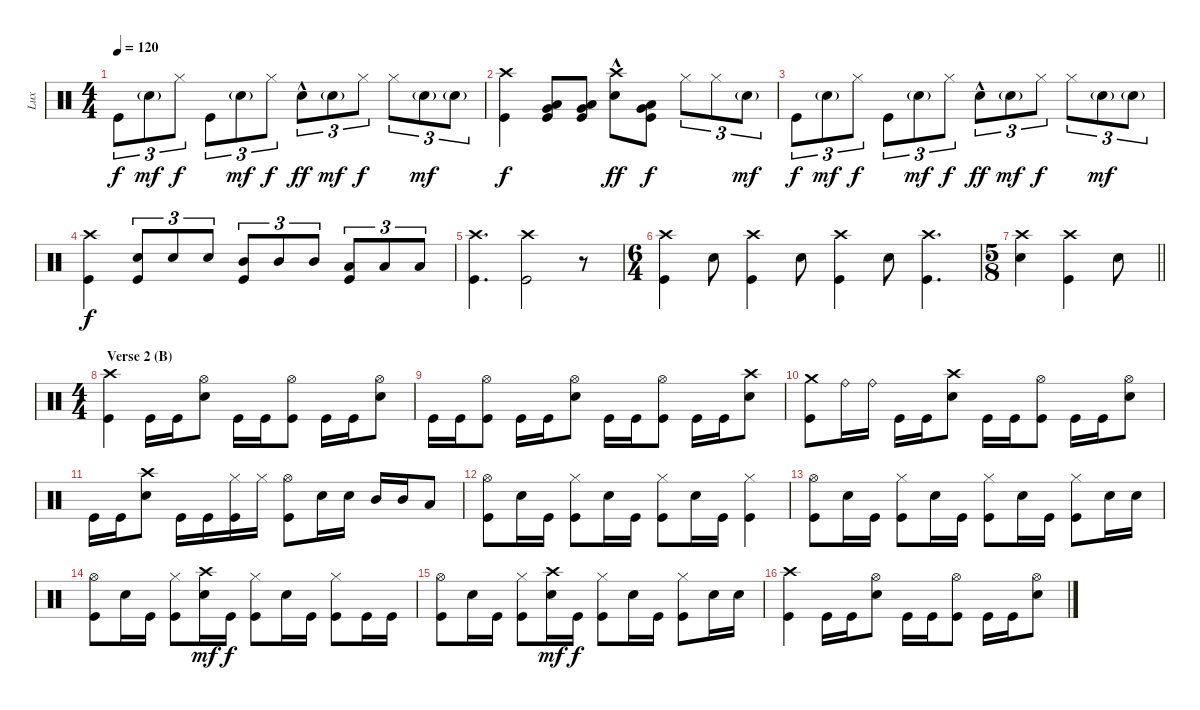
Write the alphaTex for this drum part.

\track ("Lux" "Lux") {instrument percussion bank 32}
\staff {score}
\articulation defaults
\ts (4 4)
\tempo 120
\clef neutral
\ks c "Kick (hit)".8{tu (3 2) dy f} "Snare (hit) 2"{g}.8{tu (3 2) dy mf} "Hi-Hat (closed)".8{tu (3 2) dy f} "Kick (hit)".8{tu (3 2)} "Snare (hit) 2"{g}.8{tu (3 2) dy mf} "Hi-Hat (closed)".8{tu (3 2) dy f} "Snare (hit) 2"{hac}.8{tu (3 2) dy ff} "Snare (hit) 2"{g}.8{tu (3 2) dy mf} "Hi-Hat (closed)".8{tu (3 2) dy f} "Hi-Hat (closed)".8{tu (3 2)} "Snare (hit) 2"{g}.8{tu (3 2) dy mf} "Snare (hit) 2"{g}.8{tu (3 2)}
|
("Crash high (hit)" "Kick (hit)").4{dy f} ("Low Tom (hit)" "Very Low Tom (hit)" "Kick (hit)").8 ("Low Tom (hit)" "Very Low Tom (hit)" "Kick (hit)").8 ("Crash high (hit)" "Snare (hit) 2"{hac}).8{dy ff} ("Low Tom (hit)" "Very Low Tom (hit)" "Kick (hit)").8{dy f} "Hi-Hat (closed)".8{tu (3 2)} "Hi-Hat (closed)".8{tu (3 2)} "Snare (hit) 2"{g}.8{tu (3 2) dy mf} |
"Kick (hit)".8{tu (3 2) dy f} "Snare (hit) 2"{g}.8{tu (3 2) dy mf} "Hi-Hat (closed)".8{tu (3 2) dy f} "Kick (hit)".8{tu (3 2)} "Snare (hit) 2"{g}.8{tu (3 2) dy mf} "Hi-Hat (closed)".8{tu (3 2) dy f} "Snare (hit) 2"{hac}.8{tu (3 2) dy ff} "Snare (hit) 2"{g}.8{tu (3 2) dy mf} "Hi-Hat (closed)".8{tu (3 2) dy f} "Hi-Hat (closed)".8{tu (3 2)} "Snare (hit) 2"{g}.8{tu (3 2) dy mf} "Snare (hit) 2"{g}.8{tu (3 2)} |
("Crash high (hit)" "Kick (hit)").4{dy f} ("Snare (hit) 2" "Kick (hit)").8{tu (3 2)} "Snare (hit) 2".8{tu (3 2)} "Snare (hit) 2".8{tu (3 2)} ("Mid Tom (hit)" "Kick (hit)").8{tu (3 2)} "Mid Tom (hit)".8{tu (3 2)} "Mid Tom (hit)".8{tu (3 2)} ("Low Tom (hit)" "Kick (hit)").8{tu (3 2)} "Low Tom (hit)".8{tu (3 2)} "Low Tom (hit)".8{tu (3 2)} |
("Crash high (hit)" "Kick (hit)").4{d} ("Crash high (hit)" "Kick (hit)").2 r.8 |
\ts (6 4)
("Crash high (hit)" "Kick (hit)").4 "Snare (hit) 2".8 ("Crash high (hit)" "Kick (hit)").4 "Snare (hit) 2".8 ("Crash high (hit)" "Kick (hit)").4 "Snare (hit) 2".8 ("Crash high (hit)" "Kick (hit)").4{d} |
\ts (5 8)
\barLineRight lightlight
("Crash high (hit)" "Snare (hit) 2").4 ("Crash high (hit)" "Kick (hit)").4 "Snare (hit) 2".8 |
\ts (4 4)
\section ("" " Verse 2 (B)")
("Crash high (hit)" "Kick (hit)").4 "Kick (hit)".16 "Kick (hit)".16 ("Hi-Hat (open)" "Snare (hit) 2").8 "Kick (hit)".16 "Kick (hit)".16 ("Hi-Hat (open)" "Kick (hit)").8 "Kick (hit)".16 "Kick (hit)".16 ("Hi-Hat (open)" "Snare (hit) 2").8 |
"Kick (hit)".16 "Kick (hit)".16 ("Hi-Hat (open)" "Kick (hit)").8 "Kick (hit)".16 "Kick (hit)".16 ("Hi-Hat (open)" "Snare (hit) 2").8 "Kick (hit)".16 "Kick (hit)".16 ("Hi-Hat (open)" "Kick (hit)").8 "Kick (hit)".16 "Kick (hit)".16 ("Crash high (hit)" "Snare (hit) 2").8 |
("Crash medium (hit)" "Kick (hit)").8 "Ride (bell)".16 "Ride (bell)".16 "Kick (hit)".16 "Kick (hit)".16 ("Crash high (hit)" "Snare (hit) 2").8 "Kick (hit)".16 "Kick (hit)".16 ("Hi-Hat (open)" "Kick (hit)").8 "Kick (hit)".16 "Kick (hit)".16 ("Hi-Hat (open)" "Snare (hit) 2").8 |
"Kick (hit)".16 "Kick (hit)".16 ("Crash high (hit)" "Snare (hit) 2").8 "Kick (hit)".16 "Kick (hit)".16 ("Hi-Hat (closed)" "Kick (hit)").16 "Hi-Hat (closed)".16 ("Hi-Hat (open)" "Kick (hit)").8 "Snare (hit) 2".16 "Snare (hit) 2".16 "Mid Tom (hit)".16 "Mid Tom (hit)".16 "Low Tom (hit)".8 |
("Hi-Hat (open)" "Kick (hit)").8 "Snare (hit) 2".16 "Kick (hit)".16 ("Hi-Hat (closed)" "Kick (hit)").8 "Snare (hit) 2".16 "Kick (hit)".16 ("Hi-Hat (closed)" "Kick (hit)").8 "Snare (hit) 2".16 "Kick (hit)".16 ("Hi-Hat (closed)" "Kick (hit)").4 |
("Hi-Hat (open)" "Kick (hit)").8 "Snare (hit) 2".16 "Kick (hit)".16 ("Hi-Hat (closed)" "Kick (hit)").8 "Snare (hit) 2".16 "Kick (hit)".16 ("Hi-Hat (closed)" "Kick (hit)").8 "Snare (hit) 2".16 "Kick (hit)".16 ("Hi-Hat (closed)" "Kick (hit)").8 "Snare (hit) 2".16 "Snare (hit) 2".16 |
("Hi-Hat (open)" "Kick (hit)").8 "Snare (hit) 2".16 "Kick (hit)".16 ("Hi-Hat (closed)" "Kick (hit)").8 ("Crash high (hit)" "Snare (hit) 2").16{dy mf} "Kick (hit)".16{dy f} ("Hi-Hat (closed)" "Kick (hit)").8 "Snare (hit) 2".16 "Kick (hit)".16 ("Hi-Hat (closed)" "Kick (hit)").8 "Kick (hit)".16 "Kick (hit)".16 |
("Hi-Hat (open)" "Kick (hit)").8 "Snare (hit) 2".16 "Kick (hit)".16 ("Hi-Hat (closed)" "Kick (hit)").8 ("Crash high (hit)" "Snare (hit) 2").16{dy mf} "Kick (hit)".16{dy f} ("Hi-Hat (closed)" "Kick (hit)").8 "Snare (hit) 2".16 "Kick (hit)".16 ("Hi-Hat (closed)" "Kick (hit)").8 "Snare (hit) 2".16 "Snare (hit) 2".16 |
("Crash high (hit)" "Kick (hit)").4 "Kick (hit)".16 "Kick (hit)".16 ("Hi-Hat (open)" "Snare (hit) 2").8 "Kick (hit)".16 "Kick (hit)".16 ("Hi-Hat (open)" "Kick (hit)").8 "Kick (hit)".16 "Kick (hit)".16 ("Hi-Hat (open)" "Snare (hit) 2").8
